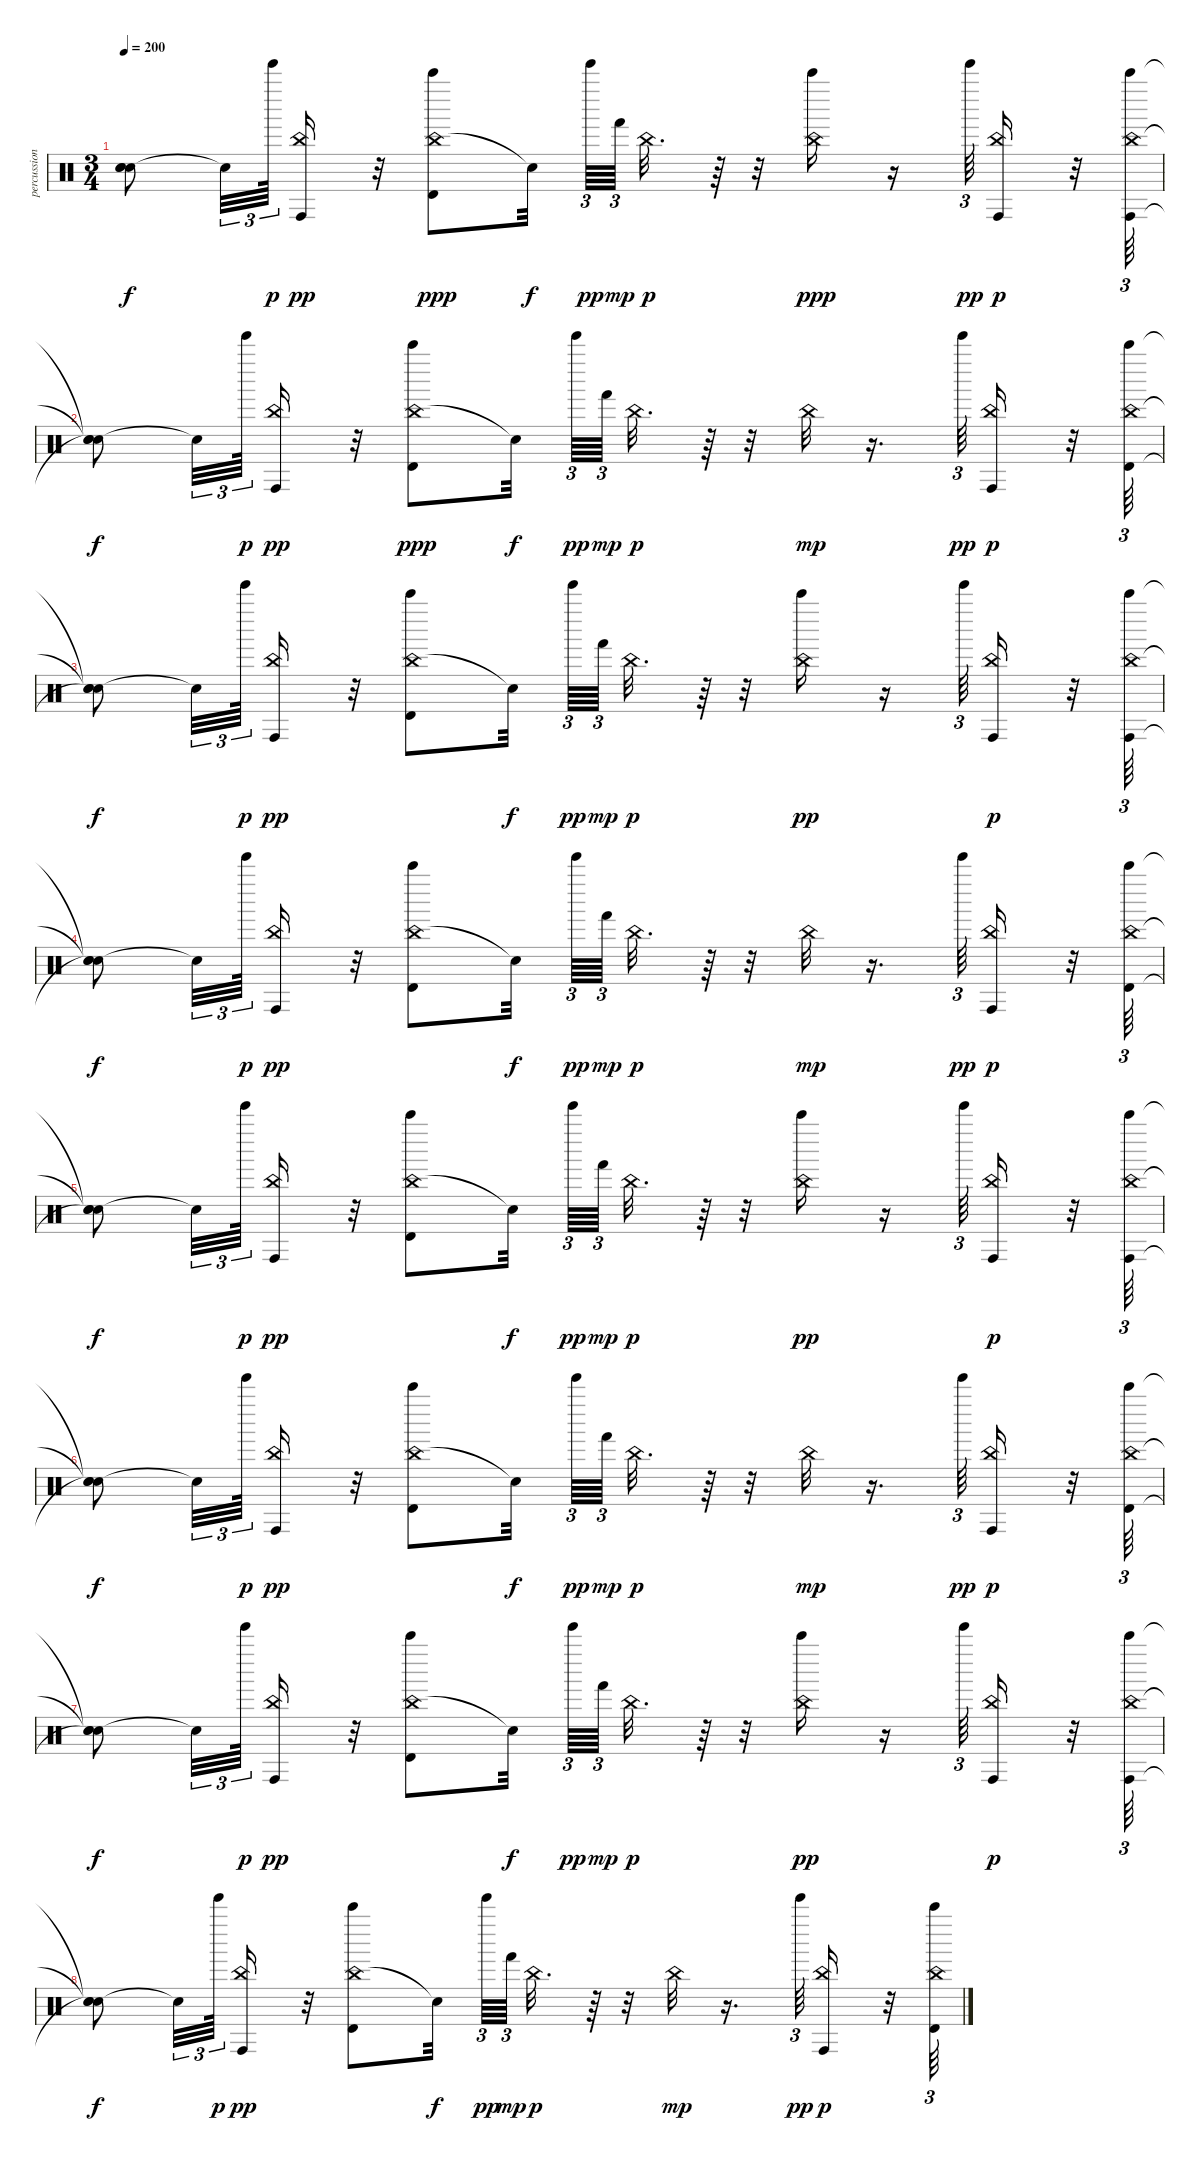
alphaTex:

\track ("percussion" "percussion") {instrument percussion}
\staff {score}
\articulation defaults
\ts (3 4)
\tempo 200
\clef neutral
\ks c
("Snare (hit)"{t} "Snare (hit)"{t} "Snare (hit)"{t}).8{dy f} "Snare (hit)"{t}.32{tu (3 2)} "Tinkle Bell (hit)".64{tu (3 2) dy p} ("Conga high (hit)" "China (hit)").16{dy pp} r.32 ("China (hit)" "Timbale high (hit)" "Bell Tree (hit)").8{dy ppp} "Snare (hit)"{t}.32{dy f} "Tinkle Bell (hit)".64{tu (3 2) dy pp} "Hand (hit)".64{tu (3 2) dy mp} "China (hit)".32{d dy p} r.64 r.32 ("China (hit)" "Bell Tree (hit)").16{dy ppp} r.16 "Tinkle Bell (hit)".64{tu (3 2) dy pp} ("Conga high (hit)" "China (hit)").16{dy p} r.32 ("China (hit)" "Conga high (hit)" "Bell Tree (hit)").64{tu (3 2)} |
("Snare (hit)"{t} "Snare (hit)"{t} "Snare (hit)"{t}).8{dy f} "Snare (hit)"{t}.32{tu (3 2)} "Tinkle Bell (hit)".64{tu (3 2) dy p} ("Conga high (hit)" "China (hit)").16{dy pp} r.32 ("China (hit)" "Timbale high (hit)" "Bell Tree (hit)").8{dy ppp} "Snare (hit)"{t}.32{dy f} "Tinkle Bell (hit)".64{tu (3 2) dy pp} "Hand (hit)".64{tu (3 2) dy mp} "China (hit)".32{d dy p} r.64 r.32 "China (hit)".32{dy mp} r.16{d} "Tinkle Bell (hit)".64{tu (3 2) dy pp} ("Conga high (hit)" "China (hit)").16{dy p} r.32 ("China (hit)" "Timbale high (hit)" "Bell Tree (hit)").64{tu (3 2)} |
("Snare (hit)"{t} "Snare (hit)"{t} "Snare (hit)"{t}).8{dy f} "Snare (hit)"{t}.32{tu (3 2)} "Tinkle Bell (hit)".64{tu (3 2) dy p} ("Conga high (hit)" "China (hit)").16{dy pp} r.32 ("China (hit)" "Timbale high (hit)" "Bell Tree (hit)").8 "Snare (hit)"{t}.32{dy f} "Tinkle Bell (hit)".64{tu (3 2) dy pp} "Hand (hit)".64{tu (3 2) dy mp} "China (hit)".32{d dy p} r.64 r.32 ("China (hit)" "Bell Tree (hit)").16{dy pp} r.16 "Tinkle Bell (hit)".64{tu (3 2)} ("Conga high (hit)" "China (hit)").16{dy p} r.32 ("China (hit)" "Conga high (hit)" "Bell Tree (hit)").64{tu (3 2)} |
("Snare (hit)"{t} "Snare (hit)"{t} "Snare (hit)"{t}).8{dy f} "Snare (hit)"{t}.32{tu (3 2)} "Tinkle Bell (hit)".64{tu (3 2) dy p} ("Conga high (hit)" "China (hit)").16{dy pp} r.32 ("China (hit)" "Timbale high (hit)" "Bell Tree (hit)").8 "Snare (hit)"{t}.32{dy f} "Tinkle Bell (hit)".64{tu (3 2) dy pp} "Hand (hit)".64{tu (3 2) dy mp} "China (hit)".32{d dy p} r.64 r.32 "China (hit)".32{dy mp} r.16{d} "Tinkle Bell (hit)".64{tu (3 2) dy pp} ("Conga high (hit)" "China (hit)").16{dy p} r.32 ("China (hit)" "Timbale high (hit)" "Bell Tree (hit)").64{tu (3 2)} |
("Snare (hit)"{t} "Snare (hit)"{t} "Snare (hit)"{t}).8{dy f} "Snare (hit)"{t}.32{tu (3 2)} "Tinkle Bell (hit)".64{tu (3 2) dy p} ("Conga high (hit)" "China (hit)").16{dy pp} r.32 ("China (hit)" "Timbale high (hit)" "Bell Tree (hit)").8 "Snare (hit)"{t}.32{dy f} "Tinkle Bell (hit)".64{tu (3 2) dy pp} "Hand (hit)".64{tu (3 2) dy mp} "China (hit)".32{d dy p} r.64 r.32 ("China (hit)" "Bell Tree (hit)").16{dy pp} r.16 "Tinkle Bell (hit)".64{tu (3 2)} ("Conga high (hit)" "China (hit)").16{dy p} r.32 ("China (hit)" "Conga high (hit)" "Bell Tree (hit)").64{tu (3 2)} |
("Snare (hit)"{t} "Snare (hit)"{t} "Snare (hit)"{t}).8{dy f} "Snare (hit)"{t}.32{tu (3 2)} "Tinkle Bell (hit)".64{tu (3 2) dy p} ("Conga high (hit)" "China (hit)").16{dy pp} r.32 ("China (hit)" "Timbale high (hit)" "Bell Tree (hit)").8 "Snare (hit)"{t}.32{dy f} "Tinkle Bell (hit)".64{tu (3 2) dy pp} "Hand (hit)".64{tu (3 2) dy mp} "China (hit)".32{d dy p} r.64 r.32 "China (hit)".32{dy mp} r.16{d} "Tinkle Bell (hit)".64{tu (3 2) dy pp} ("Conga high (hit)" "China (hit)").16{dy p} r.32 ("China (hit)" "Timbale high (hit)" "Bell Tree (hit)").64{tu (3 2)} |
("Snare (hit)"{t} "Snare (hit)"{t} "Snare (hit)"{t}).8{dy f} "Snare (hit)"{t}.32{tu (3 2)} "Tinkle Bell (hit)".64{tu (3 2) dy p} ("Conga high (hit)" "China (hit)").16{dy pp} r.32 ("China (hit)" "Timbale high (hit)" "Bell Tree (hit)").8 "Snare (hit)"{t}.32{dy f} "Tinkle Bell (hit)".64{tu (3 2) dy pp} "Hand (hit)".64{tu (3 2) dy mp} "China (hit)".32{d dy p} r.64 r.32 ("China (hit)" "Bell Tree (hit)").16{dy pp} r.16 "Tinkle Bell (hit)".64{tu (3 2)} ("Conga high (hit)" "China (hit)").16{dy p} r.32 ("China (hit)" "Conga high (hit)" "Bell Tree (hit)").64{tu (3 2)} |
("Snare (hit)"{t} "Snare (hit)"{t} "Snare (hit)"{t}).8{dy f} "Snare (hit)"{t}.32{tu (3 2)} "Tinkle Bell (hit)".64{tu (3 2) dy p} ("Conga high (hit)" "China (hit)").16{dy pp} r.32 ("China (hit)" "Timbale high (hit)" "Bell Tree (hit)").8 "Snare (hit)"{t}.32{dy f} "Tinkle Bell (hit)".64{tu (3 2) dy pp} "Hand (hit)".64{tu (3 2) dy mp} "China (hit)".32{d dy p} r.64 r.32 "China (hit)".32{dy mp} r.16{d} "Tinkle Bell (hit)".64{tu (3 2) dy pp} ("Conga high (hit)" "China (hit)").16{dy p} r.32 ("China (hit)" "Timbale high (hit)" "Bell Tree (hit)").64{tu (3 2)}
